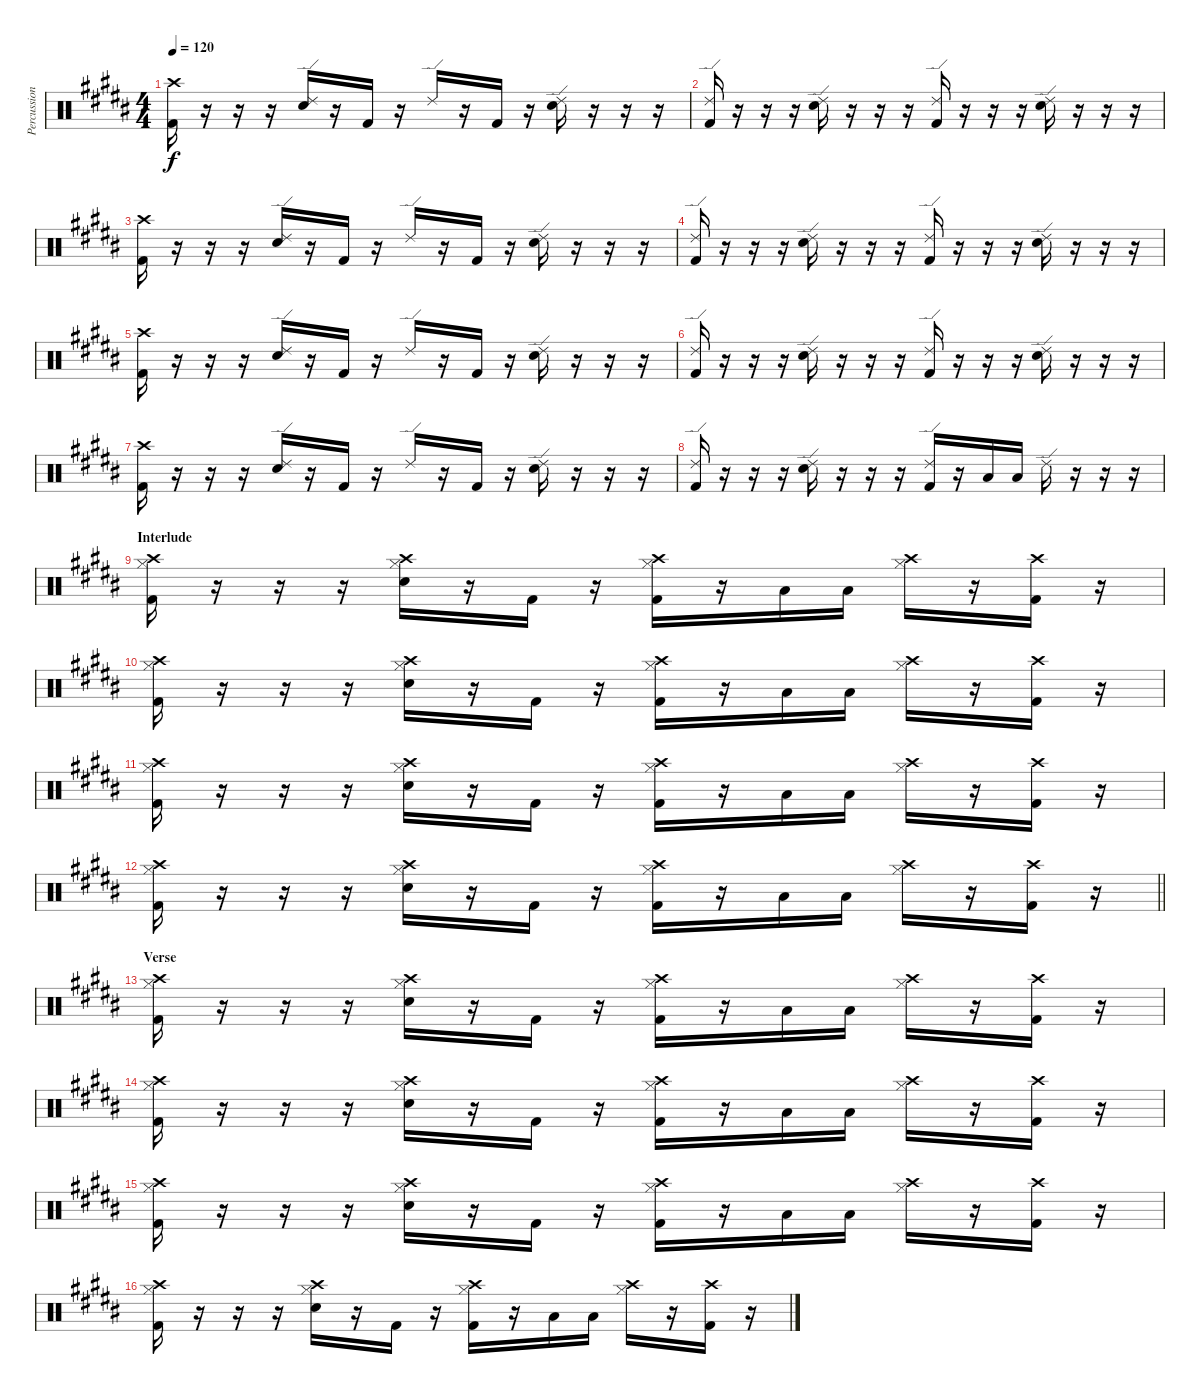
\track ("Percussion" "Percussion") {instrument percussion}
\staff {score}
\articulation defaults
\ts (4 4)
\tempo 120
\clef neutral
\ks b
("Crash high (hit)" "Kick (hit) 2").16{dy f} r.16 r.16 r.16 ("Ride (edge) 2" "Electric Snare (hit)").16 r.16 "Kick (hit) 2".16 r.16 "Ride (edge) 2".16 r.16 "Kick (hit) 2".16 r.16 ("Ride (edge) 2" "Electric Snare (hit)").16 r.16 r.16 r.16 |
("Ride (edge) 2" "Kick (hit) 2").16 r.16 r.16 r.16 ("Ride (edge) 2" "Electric Snare (hit)").16 r.16 r.16 r.16 ("Ride (edge) 2" "Kick (hit) 2").16 r.16 r.16 r.16 ("Ride (edge) 2" "Electric Snare (hit)").16 r.16 r.16 r.16 |
("Crash high (hit)" "Kick (hit) 2").16 r.16 r.16 r.16 ("Ride (edge) 2" "Electric Snare (hit)").16 r.16 "Kick (hit) 2".16 r.16 "Ride (edge) 2".16 r.16 "Kick (hit) 2".16 r.16 ("Ride (edge) 2" "Electric Snare (hit)").16 r.16 r.16 r.16 |
("Ride (edge) 2" "Kick (hit) 2").16 r.16 r.16 r.16 ("Ride (edge) 2" "Electric Snare (hit)").16 r.16 r.16 r.16 ("Ride (edge) 2" "Kick (hit) 2").16 r.16 r.16 r.16 ("Ride (edge) 2" "Electric Snare (hit)").16 r.16 r.16 r.16 |
("Crash high (hit)" "Kick (hit) 2").16 r.16 r.16 r.16 ("Ride (edge) 2" "Electric Snare (hit)").16 r.16 "Kick (hit) 2".16 r.16 "Ride (edge) 2".16 r.16 "Kick (hit) 2".16 r.16 ("Ride (edge) 2" "Electric Snare (hit)").16 r.16 r.16 r.16 |
("Ride (edge) 2" "Kick (hit) 2").16 r.16 r.16 r.16 ("Ride (edge) 2" "Electric Snare (hit)").16 r.16 r.16 r.16 ("Ride (edge) 2" "Kick (hit) 2").16 r.16 r.16 r.16 ("Ride (edge) 2" "Electric Snare (hit)").16 r.16 r.16 r.16 |
("Crash high (hit)" "Kick (hit) 2").16 r.16 r.16 r.16 ("Ride (edge) 2" "Electric Snare (hit)").16 r.16 "Kick (hit) 2".16 r.16 "Ride (edge) 2".16 r.16 "Kick (hit) 2".16 r.16 ("Ride (edge) 2" "Electric Snare (hit)").16 r.16 r.16 r.16 |
("Ride (edge) 2" "Kick (hit) 2").16 r.16 r.16 r.16 ("Ride (edge) 2" "Electric Snare (hit)").16 r.16 r.16 r.16 ("Ride (edge) 2" "Kick (hit) 2").16 r.16 "Low Tom (hit)".16 "Low Tom (hit)".16 "Ride (edge) 2".16 r.16 r.16 r.16 |
\section ("" "Interlude")
("Crash high (hit)" "Hi-Hat (closed)" "Kick (hit) 2").16 r.16 r.16 r.16 ("Crash high (hit)" "Hi-Hat (closed)" "Electric Snare (hit)").16 r.16 "Kick (hit) 2".16 r.16 ("Crash high (hit)" "Hi-Hat (closed)" "Kick (hit) 2").16 r.16 "Low Tom (hit)".16 "Low Tom (hit)".16 ("Crash high (hit)" "Hi-Hat (closed)").16 r.16 ("Crash high (hit)" "Kick (hit) 2").16 r.16 |
("Crash high (hit)" "Hi-Hat (closed)" "Kick (hit) 2").16 r.16 r.16 r.16 ("Crash high (hit)" "Hi-Hat (closed)" "Electric Snare (hit)").16 r.16 "Kick (hit) 2".16 r.16 ("Crash high (hit)" "Hi-Hat (closed)" "Kick (hit) 2").16 r.16 "Low Tom (hit)".16 "Low Tom (hit)".16 ("Crash high (hit)" "Hi-Hat (closed)").16 r.16 ("Crash high (hit)" "Kick (hit) 2").16 r.16 |
("Crash high (hit)" "Hi-Hat (closed)" "Kick (hit) 2").16 r.16 r.16 r.16 ("Crash high (hit)" "Hi-Hat (closed)" "Electric Snare (hit)").16 r.16 "Kick (hit) 2".16 r.16 ("Crash high (hit)" "Hi-Hat (closed)" "Kick (hit) 2").16 r.16 "Low Tom (hit)".16 "Low Tom (hit)".16 ("Crash high (hit)" "Hi-Hat (closed)").16 r.16 ("Crash high (hit)" "Kick (hit) 2").16 r.16 |
\barLineRight lightlight
("Crash high (hit)" "Hi-Hat (closed)" "Kick (hit) 2").16 r.16 r.16 r.16 ("Crash high (hit)" "Hi-Hat (closed)" "Electric Snare (hit)").16 r.16 "Kick (hit) 2".16 r.16 ("Crash high (hit)" "Hi-Hat (closed)" "Kick (hit) 2").16 r.16 "Low Tom (hit)".16 "Low Tom (hit)".16 ("Crash high (hit)" "Hi-Hat (closed)").16 r.16 ("Crash high (hit)" "Kick (hit) 2").16 r.16 |
\section ("" "Verse")
("Crash high (hit)" "Hi-Hat (closed)" "Kick (hit) 2").16 r.16 r.16 r.16 ("Crash high (hit)" "Hi-Hat (closed)" "Electric Snare (hit)").16 r.16 "Kick (hit) 2".16 r.16 ("Crash high (hit)" "Hi-Hat (closed)" "Kick (hit) 2").16 r.16 "Low Tom (hit)".16 "Low Tom (hit)".16 ("Crash high (hit)" "Hi-Hat (closed)").16 r.16 ("Crash high (hit)" "Kick (hit) 2").16 r.16 |
("Crash high (hit)" "Hi-Hat (closed)" "Kick (hit) 2").16 r.16 r.16 r.16 ("Crash high (hit)" "Hi-Hat (closed)" "Electric Snare (hit)").16 r.16 "Kick (hit) 2".16 r.16 ("Crash high (hit)" "Hi-Hat (closed)" "Kick (hit) 2").16 r.16 "Low Tom (hit)".16 "Low Tom (hit)".16 ("Crash high (hit)" "Hi-Hat (closed)").16 r.16 ("Crash high (hit)" "Kick (hit) 2").16 r.16 |
("Crash high (hit)" "Hi-Hat (closed)" "Kick (hit) 2").16 r.16 r.16 r.16 ("Crash high (hit)" "Hi-Hat (closed)" "Electric Snare (hit)").16 r.16 "Kick (hit) 2".16 r.16 ("Crash high (hit)" "Hi-Hat (closed)" "Kick (hit) 2").16 r.16 "Low Tom (hit)".16 "Low Tom (hit)".16 ("Crash high (hit)" "Hi-Hat (closed)").16 r.16 ("Crash high (hit)" "Kick (hit) 2").16 r.16 |
("Crash high (hit)" "Hi-Hat (closed)" "Kick (hit) 2").16 r.16 r.16 r.16 ("Crash high (hit)" "Hi-Hat (closed)" "Electric Snare (hit)").16 r.16 "Kick (hit) 2".16 r.16 ("Crash high (hit)" "Hi-Hat (closed)" "Kick (hit) 2").16 r.16 "Low Tom (hit)".16 "Low Tom (hit)".16 ("Crash high (hit)" "Hi-Hat (closed)").16 r.16 ("Crash high (hit)" "Kick (hit) 2").16 r.16
